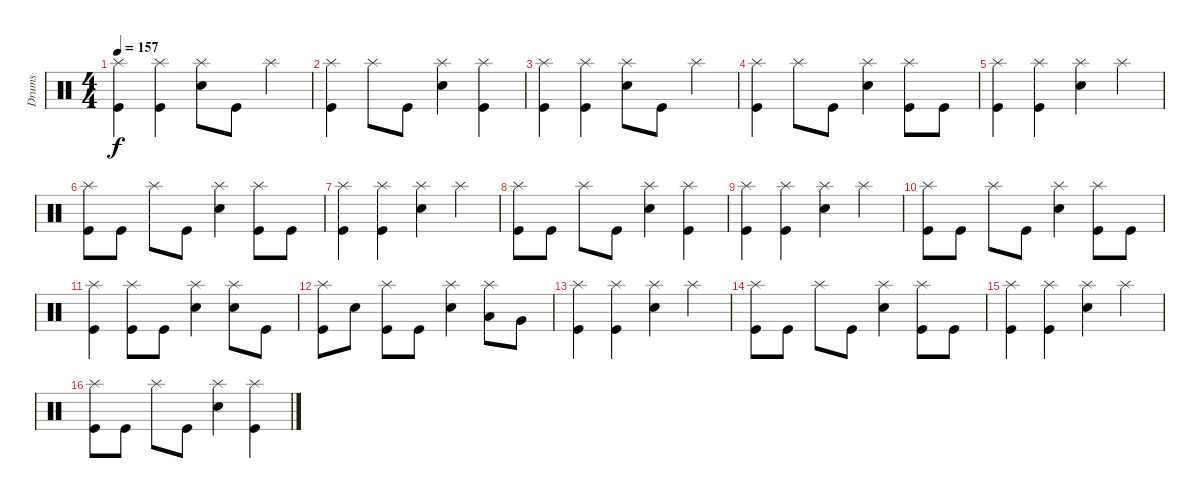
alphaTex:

\track ("Drums" "Drums") {instrument percussion}
\staff {score}
\articulation defaults
\ts (4 4)
\tempo 157
\clef neutral
\ks c
("Splash (hit)" "Kick (hit)").4{dy f} ("Splash (hit)" "Kick (hit)").4 ("Splash (hit)" "Electric Snare (hit)").8 "Kick (hit)".8 "Splash (hit)".4 |
("Splash (hit)" "Kick (hit)").4 "Splash (hit)".8 "Kick (hit)".8 ("Splash (hit)" "Electric Snare (hit)").4 ("Splash (hit)" "Kick (hit)").4 |
("Splash (hit)" "Kick (hit)").4 ("Splash (hit)" "Kick (hit)").4 ("Splash (hit)" "Electric Snare (hit)").8 "Kick (hit)".8 "Splash (hit)".4 |
("Splash (hit)" "Kick (hit)").4 "Splash (hit)".8 "Kick (hit)".8 ("Splash (hit)" "Electric Snare (hit)").4 ("Splash (hit)" "Kick (hit)").8 "Kick (hit)".8 |
("Splash (hit)" "Kick (hit)").4 ("Splash (hit)" "Kick (hit)").4 ("Splash (hit)" "Electric Snare (hit)").4 "Splash (hit)".4 |
("Splash (hit)" "Kick (hit)").8 "Kick (hit)".8 "Splash (hit)".8 "Kick (hit)".8 ("Splash (hit)" "Electric Snare (hit)").4 ("Splash (hit)" "Kick (hit)").8 "Kick (hit)".8 |
("Splash (hit)" "Kick (hit)").4 ("Splash (hit)" "Kick (hit)").4 ("Splash (hit)" "Electric Snare (hit)").4 "Splash (hit)".4 |
("Splash (hit)" "Kick (hit)").8 "Kick (hit)".8 "Splash (hit)".8 "Kick (hit)".8 ("Splash (hit)" "Electric Snare (hit)").4 ("Splash (hit)" "Kick (hit)").4 |
("Splash (hit)" "Kick (hit)").4 ("Splash (hit)" "Kick (hit)").4 ("Splash (hit)" "Electric Snare (hit)").4 "Splash (hit)".4 |
("Splash (hit)" "Kick (hit)").8 "Kick (hit)".8 "Splash (hit)".8 "Kick (hit)".8 ("Splash (hit)" "Electric Snare (hit)").4 ("Splash (hit)" "Kick (hit)").8 "Kick (hit)".8 |
("Splash (hit)" "Kick (hit)").4 ("Splash (hit)" "Kick (hit)").8 "Kick (hit)".8 ("Splash (hit)" "Electric Snare (hit)").4 ("Splash (hit)" "Electric Snare (hit)").8 "Kick (hit)".8 |
("Splash (hit)" "Kick (hit)").8 "Electric Snare (hit)".8 ("Splash (hit)" "Kick (hit)").8 "Kick (hit)".8 ("Splash (hit)" "Electric Snare (hit)").4 ("Splash (hit)" "Low Tom (hit)").8 "Very Low Tom (hit)".8 |
("Splash (hit)" "Kick (hit)").4 ("Splash (hit)" "Kick (hit)").4 ("Splash (hit)" "Electric Snare (hit)").4 "Splash (hit)".4 |
("Splash (hit)" "Kick (hit)").8 "Kick (hit)".8 "Splash (hit)".8 "Kick (hit)".8 ("Splash (hit)" "Electric Snare (hit)").4 ("Splash (hit)" "Kick (hit)").8 "Kick (hit)".8 |
("Splash (hit)" "Kick (hit)").4 ("Splash (hit)" "Kick (hit)").4 ("Splash (hit)" "Electric Snare (hit)").4 "Splash (hit)".4 |
("Splash (hit)" "Kick (hit)").8 "Kick (hit)".8 "Splash (hit)".8 "Kick (hit)".8 ("Splash (hit)" "Electric Snare (hit)").4 ("Splash (hit)" "Kick (hit)").4
